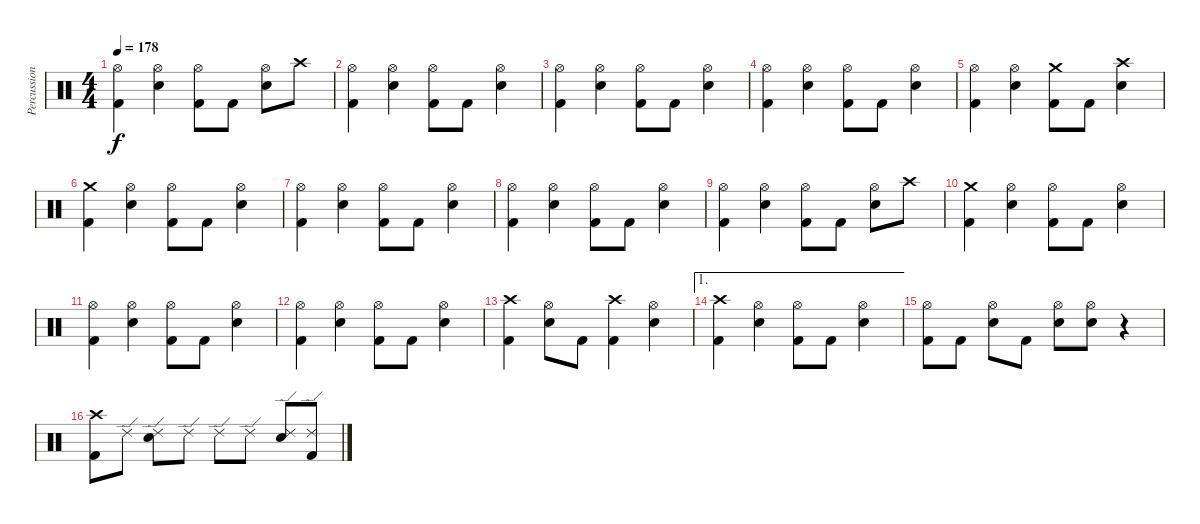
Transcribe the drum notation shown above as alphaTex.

\track ("Percussion" "Percussion") {instrument percussion}
\staff {score}
\articulation defaults
\ts (4 4)
\tempo 178
\clef neutral
\ks c
("Hi-Hat (open)" "Kick (hit) 2").4{dy f} ("Hi-Hat (open)" "Snare (hit) 2").4 ("Hi-Hat (open)" "Kick (hit) 2").8 "Kick (hit) 2".8 ("Hi-Hat (open)" "Snare (hit) 2").8 "Crash high (hit)".8 |
("Hi-Hat (open)" "Kick (hit) 2").4 ("Hi-Hat (open)" "Snare (hit) 2").4 ("Hi-Hat (open)" "Kick (hit) 2").8 "Kick (hit) 2".8 ("Hi-Hat (open)" "Snare (hit) 2").4 |
("Hi-Hat (open)" "Kick (hit) 2").4 ("Hi-Hat (open)" "Snare (hit) 2").4 ("Hi-Hat (open)" "Kick (hit) 2").8 "Kick (hit) 2".8 ("Hi-Hat (open)" "Snare (hit) 2").4 |
("Hi-Hat (open)" "Kick (hit) 2").4 ("Hi-Hat (open)" "Snare (hit) 2").4 ("Hi-Hat (open)" "Kick (hit) 2").8 "Kick (hit) 2".8 ("Hi-Hat (open)" "Snare (hit) 2").4 |
("Hi-Hat (open)" "Kick (hit) 2").4 ("Hi-Hat (open)" "Snare (hit) 2").4 ("Crash medium (hit)" "Kick (hit) 2").8 "Kick (hit) 2".8 ("Crash high (hit)" "Snare (hit) 2").4 |
("Crash medium (hit)" "Kick (hit) 2").4 ("Hi-Hat (open)" "Snare (hit) 2").4 ("Hi-Hat (open)" "Kick (hit) 2").8 "Kick (hit) 2".8 ("Hi-Hat (open)" "Snare (hit) 2").4 |
("Hi-Hat (open)" "Kick (hit) 2").4 ("Hi-Hat (open)" "Snare (hit) 2").4 ("Hi-Hat (open)" "Kick (hit) 2").8 "Kick (hit) 2".8 ("Hi-Hat (open)" "Snare (hit) 2").4 |
("Hi-Hat (open)" "Kick (hit) 2").4 ("Hi-Hat (open)" "Snare (hit) 2").4 ("Hi-Hat (open)" "Kick (hit) 2").8 "Kick (hit) 2".8 ("Hi-Hat (open)" "Snare (hit) 2").4 |
("Hi-Hat (open)" "Kick (hit) 2").4 ("Hi-Hat (open)" "Snare (hit) 2").4 ("Hi-Hat (open)" "Kick (hit) 2").8 "Kick (hit) 2".8 ("Hi-Hat (open)" "Snare (hit) 2").8 "Crash high (hit)".8 |
("Crash medium (hit)" "Kick (hit) 2").4 ("Hi-Hat (open)" "Snare (hit) 2").4 ("Hi-Hat (open)" "Kick (hit) 2").8 "Kick (hit) 2".8 ("Hi-Hat (open)" "Snare (hit) 2").4 |
("Hi-Hat (open)" "Kick (hit) 2").4 ("Hi-Hat (open)" "Snare (hit) 2").4 ("Hi-Hat (open)" "Kick (hit) 2").8 "Kick (hit) 2".8 ("Hi-Hat (open)" "Snare (hit) 2").4 |
("Hi-Hat (open)" "Kick (hit) 2").4 ("Hi-Hat (open)" "Snare (hit) 2").4 ("Hi-Hat (open)" "Kick (hit) 2").8 "Kick (hit) 2".8 ("Hi-Hat (open)" "Snare (hit) 2").4 |
("Crash high (hit)" "Kick (hit) 2").4 ("Hi-Hat (open)" "Snare (hit) 2").8 "Kick (hit) 2".8 ("Crash high (hit)" "Kick (hit) 2").4 ("Hi-Hat (open)" "Snare (hit) 2").4 |
\ae 1
("Crash high (hit)" "Kick (hit) 2").4 ("Hi-Hat (open)" "Snare (hit) 2").4 ("Hi-Hat (open)" "Kick (hit) 2").8 "Kick (hit) 2".8 ("Hi-Hat (open)" "Snare (hit) 2").4 |
("Hi-Hat (open)" "Kick (hit) 2").8 "Kick (hit) 2".8 ("Hi-Hat (open)" "Snare (hit) 2").8 "Kick (hit) 2".8 ("Hi-Hat (open)" "Snare (hit) 2").8 ("Hi-Hat (open)" "Snare (hit) 2").8 r.4 |
("Crash high (hit)" "Kick (hit) 2").8 "Ride (edge) 2".8 ("Ride (edge) 2" "Snare (hit) 2").8 "Ride (edge) 2".8 "Ride (edge) 2".8 "Ride (edge) 2".8 ("Ride (edge) 2" "Snare (hit) 2").8 ("Ride (edge) 2" "Kick (hit) 2").8
